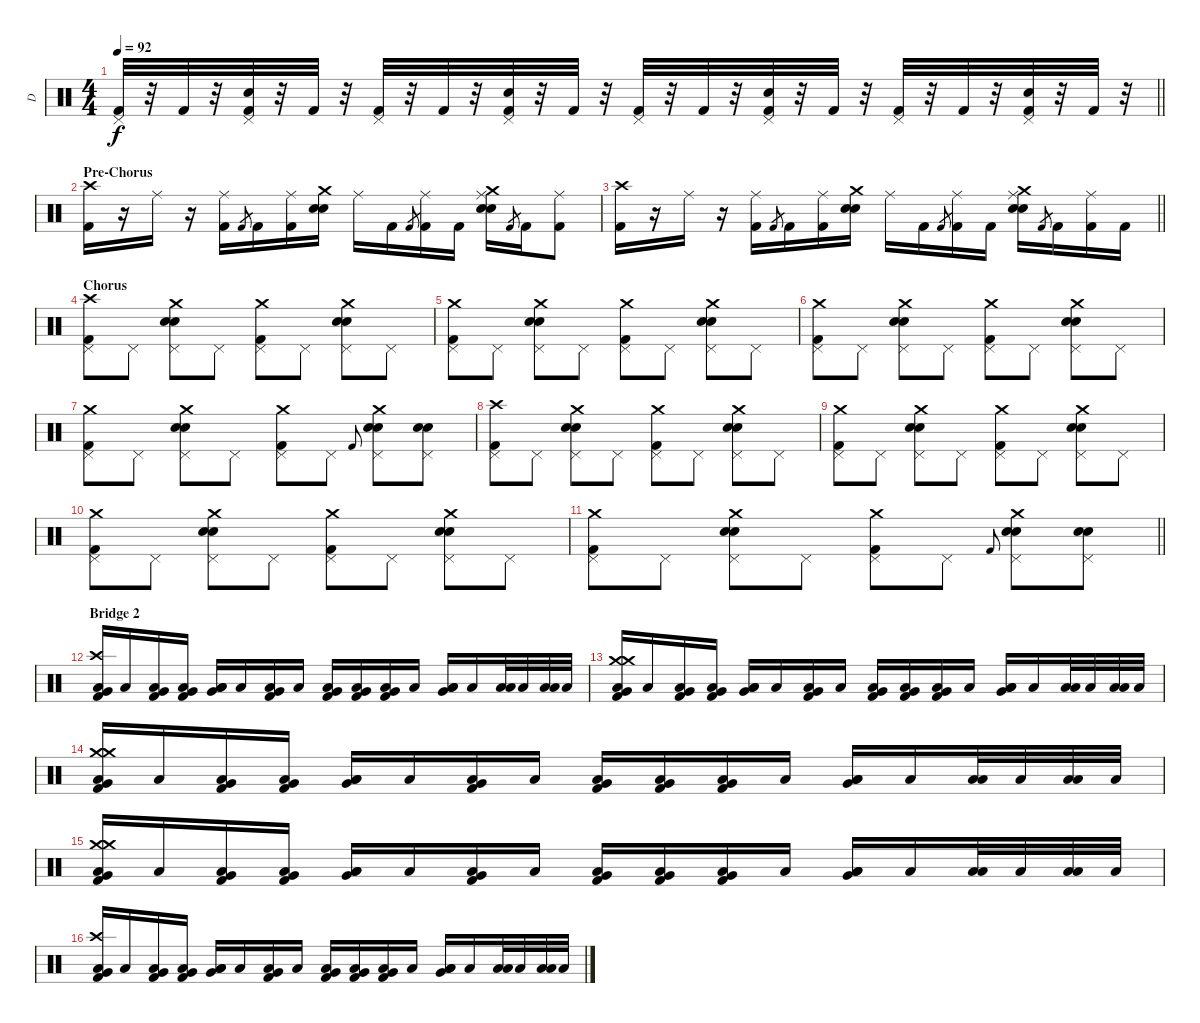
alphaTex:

\track ("D" "D") {instrument percussion}
\staff {score}
\articulation defaults
\ts (4 4)
\tempo 92
\clef neutral
\barLineRight lightlight
\ks c
("Kick (hit) 2" "Pedal Hi-Hat (hit)").32{dy f} r.32 "Kick (hit) 2".32 r.32 ("Electric Snare (hit)" "Kick (hit) 2" "Pedal Hi-Hat (hit)").32 r.32 "Kick (hit) 2".32 r.32 ("Kick (hit) 2" "Pedal Hi-Hat (hit)").32 r.32 "Kick (hit) 2".32 r.32 ("Electric Snare (hit)" "Kick (hit) 2" "Pedal Hi-Hat (hit)").32 r.32 "Kick (hit) 2".32 r.32 ("Kick (hit) 2" "Pedal Hi-Hat (hit)").32 r.32 "Kick (hit) 2".32 r.32 ("Electric Snare (hit)" "Kick (hit) 2" "Pedal Hi-Hat (hit)").32 r.32 "Kick (hit) 2".32 r.32 ("Kick (hit) 2" "Pedal Hi-Hat (hit)").32 r.32 "Kick (hit) 2".32 r.32 ("Electric Snare (hit)" "Kick (hit) 2" "Pedal Hi-Hat (hit)").32 r.32 "Kick (hit) 2".32 r.32 |
\section ("" "Pre-Chorus")
("Crash high (hit)" "Kick (hit) 2").16 r.16 "Ride (middle)".16 r.16 ("Kick (hit) 2" "Ride (middle)").16 "Kick (hit) 2".8{gr} "Kick (hit) 2".16 ("Kick (hit) 2" "Ride (middle)").16 ("Crash medium (hit)" "Electric Snare (hit)" "Electric Snare (hit)").16 "Ride (middle)".16 "Kick (hit) 2".16 "Kick (hit) 2".8{gr} ("Kick (hit) 2" "Ride (middle)").16 "Kick (hit) 2".16 ("Crash medium (hit)" "Electric Snare (hit)" "Electric Snare (hit)" "Ride (middle)").16 "Kick (hit) 2".8{gr} "Kick (hit) 2".16 ("Kick (hit) 2" "Ride (middle)").8 |
\barLineRight lightlight
("Crash high (hit)" "Kick (hit) 2").16 r.16 "Ride (middle)".16 r.16 ("Kick (hit) 2" "Ride (middle)").16 "Kick (hit) 2".8{gr} "Kick (hit) 2".16 ("Kick (hit) 2" "Ride (middle)").16 ("Crash medium (hit)" "Electric Snare (hit)" "Electric Snare (hit)").16 "Ride (middle)".16 "Kick (hit) 2".16 "Kick (hit) 2".8{gr} ("Kick (hit) 2" "Ride (middle)").16 "Kick (hit) 2".16 ("Crash medium (hit)" "Electric Snare (hit)" "Electric Snare (hit)" "Ride (middle)").16 "Kick (hit) 2".8{gr} "Kick (hit) 2".16 ("Kick (hit) 2" "Ride (middle)").16 "Kick (hit) 2".16 |
\section ("" "Chorus")
("Crash high (hit)" "Kick (hit) 2" "Pedal Hi-Hat (hit)").8 "Pedal Hi-Hat (hit)".8 ("Crash medium (hit)" "Electric Snare (hit)" "Electric Snare (hit)" "Pedal Hi-Hat (hit)").8 "Pedal Hi-Hat (hit)".8 ("Crash medium (hit)" "Kick (hit) 2" "Pedal Hi-Hat (hit)").8 "Pedal Hi-Hat (hit)".8 ("Crash medium (hit)" "Electric Snare (hit)" "Electric Snare (hit)" "Pedal Hi-Hat (hit)").8 "Pedal Hi-Hat (hit)".8 |
("Crash medium (hit)" "Kick (hit) 2" "Pedal Hi-Hat (hit)").8 "Pedal Hi-Hat (hit)".8 ("Crash medium (hit)" "Electric Snare (hit)" "Electric Snare (hit)" "Pedal Hi-Hat (hit)").8 "Pedal Hi-Hat (hit)".8 ("Crash medium (hit)" "Kick (hit) 2" "Pedal Hi-Hat (hit)").8 "Pedal Hi-Hat (hit)".8 ("Crash medium (hit)" "Electric Snare (hit)" "Electric Snare (hit)" "Pedal Hi-Hat (hit)").8 "Pedal Hi-Hat (hit)".8 |
("Crash medium (hit)" "Kick (hit) 2" "Pedal Hi-Hat (hit)").8 "Pedal Hi-Hat (hit)".8 ("Crash medium (hit)" "Electric Snare (hit)" "Electric Snare (hit)" "Pedal Hi-Hat (hit)").8 "Pedal Hi-Hat (hit)".8 ("Crash medium (hit)" "Kick (hit) 2" "Pedal Hi-Hat (hit)").8 "Pedal Hi-Hat (hit)".8 ("Crash medium (hit)" "Electric Snare (hit)" "Electric Snare (hit)" "Pedal Hi-Hat (hit)").8 "Pedal Hi-Hat (hit)".8 |
("Crash medium (hit)" "Kick (hit) 2" "Pedal Hi-Hat (hit)").8 "Pedal Hi-Hat (hit)".8 ("Crash medium (hit)" "Electric Snare (hit)" "Electric Snare (hit)" "Pedal Hi-Hat (hit)").8 "Pedal Hi-Hat (hit)".8 ("Crash medium (hit)" "Kick (hit) 2" "Pedal Hi-Hat (hit)").8 "Pedal Hi-Hat (hit)".8 "Kick (hit) 2".8{gr onbeat} ("Crash medium (hit)" "Electric Snare (hit)" "Electric Snare (hit)" "Pedal Hi-Hat (hit)").8 ("Electric Snare (hit)" "Electric Snare (hit)" "Pedal Hi-Hat (hit)").8 |
("Crash high (hit)" "Kick (hit) 2" "Pedal Hi-Hat (hit)").8 "Pedal Hi-Hat (hit)".8 ("Crash medium (hit)" "Electric Snare (hit)" "Electric Snare (hit)" "Pedal Hi-Hat (hit)").8 "Pedal Hi-Hat (hit)".8 ("Crash medium (hit)" "Kick (hit) 2" "Pedal Hi-Hat (hit)").8 "Pedal Hi-Hat (hit)".8 ("Crash medium (hit)" "Electric Snare (hit)" "Electric Snare (hit)" "Pedal Hi-Hat (hit)").8 "Pedal Hi-Hat (hit)".8 |
("Crash medium (hit)" "Kick (hit) 2" "Pedal Hi-Hat (hit)").8 "Pedal Hi-Hat (hit)".8 ("Crash medium (hit)" "Electric Snare (hit)" "Electric Snare (hit)" "Pedal Hi-Hat (hit)").8 "Pedal Hi-Hat (hit)".8 ("Crash medium (hit)" "Kick (hit) 2" "Pedal Hi-Hat (hit)").8 "Pedal Hi-Hat (hit)".8 ("Crash medium (hit)" "Electric Snare (hit)" "Electric Snare (hit)" "Pedal Hi-Hat (hit)").8 "Pedal Hi-Hat (hit)".8 |
("Crash medium (hit)" "Kick (hit) 2" "Pedal Hi-Hat (hit)").8 "Pedal Hi-Hat (hit)".8 ("Crash medium (hit)" "Electric Snare (hit)" "Electric Snare (hit)" "Pedal Hi-Hat (hit)").8 "Pedal Hi-Hat (hit)".8 ("Crash medium (hit)" "Kick (hit) 2" "Pedal Hi-Hat (hit)").8 "Pedal Hi-Hat (hit)".8 ("Crash medium (hit)" "Electric Snare (hit)" "Electric Snare (hit)" "Pedal Hi-Hat (hit)").8 "Pedal Hi-Hat (hit)".8 |
\barLineRight lightlight
("Crash medium (hit)" "Kick (hit) 2" "Pedal Hi-Hat (hit)").8 "Pedal Hi-Hat (hit)".8 ("Crash medium (hit)" "Electric Snare (hit)" "Electric Snare (hit)" "Pedal Hi-Hat (hit)").8 "Pedal Hi-Hat (hit)".8 ("Crash medium (hit)" "Kick (hit) 2" "Pedal Hi-Hat (hit)").8 "Pedal Hi-Hat (hit)".8 "Kick (hit) 2".8{gr onbeat} ("Crash medium (hit)" "Electric Snare (hit)" "Electric Snare (hit)" "Pedal Hi-Hat (hit)").8 ("Electric Snare (hit)" "Electric Snare (hit)" "Pedal Hi-Hat (hit)").8 |
\section ("" "Bridge 2")
("Crash high (hit)" "Very Low Tom (hit)" "Kick (hit) 2" "Low Floor Tom (hit)").16 "Low Floor Tom (hit)".16 ("Very Low Tom (hit)" "Kick (hit) 2" "Low Floor Tom (hit)").16 ("Very Low Tom (hit)" "Kick (hit) 2" "Low Floor Tom (hit)").16 ("Very Low Tom (hit)" "Low Tom (hit)" "Low Floor Tom (hit)").16 "Low Floor Tom (hit)".16 ("Very Low Tom (hit)" "Kick (hit) 2" "Low Floor Tom (hit)").16 "Low Floor Tom (hit)".16 ("Very Low Tom (hit)" "Kick (hit) 2" "Low Floor Tom (hit)").16 ("Very Low Tom (hit)" "Kick (hit) 2" "Low Floor Tom (hit)").16 ("Very Low Tom (hit)" "Kick (hit) 2" "Low Floor Tom (hit)").16 "Low Floor Tom (hit)".16 ("Very Low Tom (hit)" "Low Tom (hit)" "Low Floor Tom (hit)").16 "Low Floor Tom (hit)".16 ("Low Tom (hit)" "Low Floor Tom (hit)").32 "Low Tom (hit)".32 ("Low Tom (hit)" "Low Floor Tom (hit)").32 "Low Tom (hit)".32 |
("Crash medium (hit)" "Crash medium (hit)" "Very Low Tom (hit)" "Kick (hit) 2" "Low Floor Tom (hit)").16 "Low Floor Tom (hit)".16 ("Very Low Tom (hit)" "Kick (hit) 2" "Low Floor Tom (hit)").16 ("Very Low Tom (hit)" "Kick (hit) 2" "Low Floor Tom (hit)").16 ("Very Low Tom (hit)" "Low Tom (hit)" "Low Floor Tom (hit)").16 "Low Floor Tom (hit)".16 ("Very Low Tom (hit)" "Kick (hit) 2" "Low Floor Tom (hit)").16 "Low Floor Tom (hit)".16 ("Very Low Tom (hit)" "Kick (hit) 2" "Low Floor Tom (hit)").16 ("Very Low Tom (hit)" "Kick (hit) 2" "Low Floor Tom (hit)").16 ("Very Low Tom (hit)" "Kick (hit) 2" "Low Floor Tom (hit)").16 "Low Floor Tom (hit)".16 ("Very Low Tom (hit)" "Low Tom (hit)" "Low Floor Tom (hit)").16 "Low Floor Tom (hit)".16 ("Low Tom (hit)" "Low Floor Tom (hit)").32 "Low Tom (hit)".32 ("Low Tom (hit)" "Low Floor Tom (hit)").32 "Low Tom (hit)".32 |
("Crash medium (hit)" "Crash medium (hit)" "Very Low Tom (hit)" "Kick (hit) 2" "Low Floor Tom (hit)").16 "Low Floor Tom (hit)".16 ("Very Low Tom (hit)" "Kick (hit) 2" "Low Floor Tom (hit)").16 ("Very Low Tom (hit)" "Kick (hit) 2" "Low Floor Tom (hit)").16 ("Very Low Tom (hit)" "Low Tom (hit)" "Low Floor Tom (hit)").16 "Low Floor Tom (hit)".16 ("Very Low Tom (hit)" "Kick (hit) 2" "Low Floor Tom (hit)").16 "Low Floor Tom (hit)".16 ("Very Low Tom (hit)" "Kick (hit) 2" "Low Floor Tom (hit)").16 ("Very Low Tom (hit)" "Kick (hit) 2" "Low Floor Tom (hit)").16 ("Very Low Tom (hit)" "Kick (hit) 2" "Low Floor Tom (hit)").16 "Low Floor Tom (hit)".16 ("Very Low Tom (hit)" "Low Tom (hit)" "Low Floor Tom (hit)").16 "Low Floor Tom (hit)".16 ("Low Tom (hit)" "Low Floor Tom (hit)").32 "Low Tom (hit)".32 ("Low Tom (hit)" "Low Floor Tom (hit)").32 "Low Tom (hit)".32 |
("Crash medium (hit)" "Crash medium (hit)" "Very Low Tom (hit)" "Kick (hit) 2" "Low Floor Tom (hit)").16 "Low Floor Tom (hit)".16 ("Very Low Tom (hit)" "Kick (hit) 2" "Low Floor Tom (hit)").16 ("Very Low Tom (hit)" "Kick (hit) 2" "Low Floor Tom (hit)").16 ("Very Low Tom (hit)" "Low Tom (hit)" "Low Floor Tom (hit)").16 "Low Floor Tom (hit)".16 ("Very Low Tom (hit)" "Kick (hit) 2" "Low Floor Tom (hit)").16 "Low Floor Tom (hit)".16 ("Very Low Tom (hit)" "Kick (hit) 2" "Low Floor Tom (hit)").16 ("Very Low Tom (hit)" "Kick (hit) 2" "Low Floor Tom (hit)").16 ("Very Low Tom (hit)" "Kick (hit) 2" "Low Floor Tom (hit)").16 "Low Floor Tom (hit)".16 ("Very Low Tom (hit)" "Low Tom (hit)" "Low Floor Tom (hit)").16 "Low Floor Tom (hit)".16 ("Low Tom (hit)" "Low Floor Tom (hit)").32 "Low Tom (hit)".32 ("Low Tom (hit)" "Low Floor Tom (hit)").32 "Low Tom (hit)".32 |
("Crash high (hit)" "Very Low Tom (hit)" "Kick (hit) 2" "Low Floor Tom (hit)").16 "Low Floor Tom (hit)".16 ("Very Low Tom (hit)" "Kick (hit) 2" "Low Floor Tom (hit)").16 ("Very Low Tom (hit)" "Kick (hit) 2" "Low Floor Tom (hit)").16 ("Very Low Tom (hit)" "Low Tom (hit)" "Low Floor Tom (hit)").16 "Low Floor Tom (hit)".16 ("Very Low Tom (hit)" "Kick (hit) 2" "Low Floor Tom (hit)").16 "Low Floor Tom (hit)".16 ("Very Low Tom (hit)" "Kick (hit) 2" "Low Floor Tom (hit)").16 ("Very Low Tom (hit)" "Kick (hit) 2" "Low Floor Tom (hit)").16 ("Very Low Tom (hit)" "Kick (hit) 2" "Low Floor Tom (hit)").16 "Low Floor Tom (hit)".16 ("Very Low Tom (hit)" "Low Tom (hit)" "Low Floor Tom (hit)").16 "Low Floor Tom (hit)".16 ("Low Tom (hit)" "Low Floor Tom (hit)").32 "Low Tom (hit)".32 ("Low Tom (hit)" "Low Floor Tom (hit)").32 "Low Tom (hit)".32
